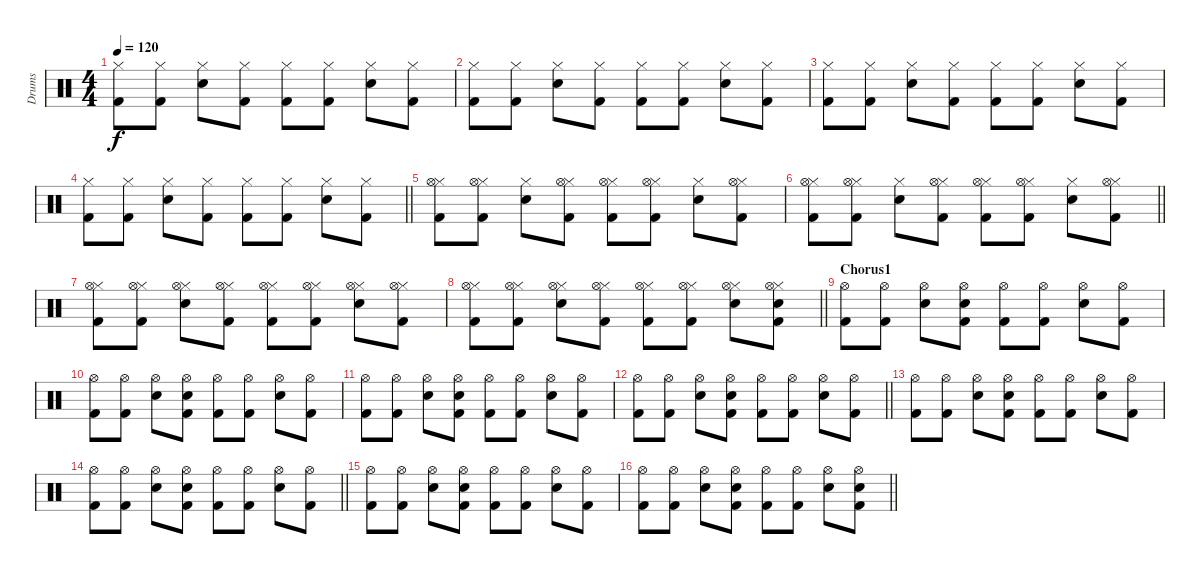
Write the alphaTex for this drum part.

\track ("Drums" "Drums") {instrument percussion}
\staff {score}
\articulation defaults
\ts (4 4)
\tempo 120
\clef neutral
\ks c
("Hi-Hat (closed)" "Kick (hit) 2").8{dy f} ("Hi-Hat (closed)" "Kick (hit) 2").8 ("Hi-Hat (closed)" "Electric Snare (hit)").8 ("Hi-Hat (closed)" "Kick (hit) 2").8 ("Hi-Hat (closed)" "Kick (hit) 2").8 ("Hi-Hat (closed)" "Kick (hit) 2").8 ("Hi-Hat (closed)" "Electric Snare (hit)").8 ("Hi-Hat (closed)" "Kick (hit) 2").8 |
("Hi-Hat (closed)" "Kick (hit) 2").8 ("Hi-Hat (closed)" "Kick (hit) 2").8 ("Hi-Hat (closed)" "Electric Snare (hit)").8 ("Hi-Hat (closed)" "Kick (hit) 2").8 ("Hi-Hat (closed)" "Kick (hit) 2").8 ("Hi-Hat (closed)" "Kick (hit) 2").8 ("Hi-Hat (closed)" "Electric Snare (hit)").8 ("Hi-Hat (closed)" "Kick (hit) 2").8 |
("Hi-Hat (closed)" "Kick (hit) 2").8 ("Hi-Hat (closed)" "Kick (hit) 2").8 ("Hi-Hat (closed)" "Electric Snare (hit)").8 ("Hi-Hat (closed)" "Kick (hit) 2").8 ("Hi-Hat (closed)" "Kick (hit) 2").8 ("Hi-Hat (closed)" "Kick (hit) 2").8 ("Hi-Hat (closed)" "Electric Snare (hit)").8 ("Hi-Hat (closed)" "Kick (hit) 2").8 |
\barLineRight lightlight
("Hi-Hat (closed)" "Kick (hit) 2").8 ("Hi-Hat (closed)" "Kick (hit) 2").8 ("Hi-Hat (closed)" "Electric Snare (hit)").8 ("Hi-Hat (closed)" "Kick (hit) 2").8 ("Hi-Hat (closed)" "Kick (hit) 2").8 ("Hi-Hat (closed)" "Kick (hit) 2").8 ("Hi-Hat (closed)" "Electric Snare (hit)").8 ("Hi-Hat (closed)" "Kick (hit) 2").8 |
("Hi-Hat (closed)" "Hi-Hat (open)" "Kick (hit) 2").8 ("Hi-Hat (closed)" "Hi-Hat (open)" "Kick (hit) 2").8 ("Hi-Hat (closed)" "Electric Snare (hit)").8 ("Hi-Hat (closed)" "Hi-Hat (open)" "Kick (hit) 2").8 ("Hi-Hat (closed)" "Hi-Hat (open)" "Kick (hit) 2").8 ("Hi-Hat (closed)" "Hi-Hat (open)" "Kick (hit) 2").8 ("Hi-Hat (closed)" "Electric Snare (hit)").8 ("Hi-Hat (closed)" "Hi-Hat (open)" "Kick (hit) 2").8 |
\barLineRight lightlight
("Hi-Hat (closed)" "Hi-Hat (open)" "Kick (hit) 2").8 ("Hi-Hat (closed)" "Hi-Hat (open)" "Kick (hit) 2").8 ("Hi-Hat (closed)" "Electric Snare (hit)").8 ("Hi-Hat (closed)" "Hi-Hat (open)" "Kick (hit) 2").8 ("Hi-Hat (closed)" "Hi-Hat (open)" "Kick (hit) 2").8 ("Hi-Hat (closed)" "Hi-Hat (open)" "Kick (hit) 2").8 ("Hi-Hat (closed)" "Electric Snare (hit)").8 ("Hi-Hat (closed)" "Hi-Hat (open)" "Kick (hit) 2").8 |
("Hi-Hat (closed)" "Hi-Hat (open)" "Kick (hit) 2").8 ("Hi-Hat (closed)" "Hi-Hat (open)" "Kick (hit) 2").8 ("Hi-Hat (closed)" "Hi-Hat (open)" "Electric Snare (hit)").8 ("Hi-Hat (closed)" "Hi-Hat (open)" "Kick (hit) 2").8 ("Hi-Hat (closed)" "Hi-Hat (open)" "Kick (hit) 2").8 ("Hi-Hat (closed)" "Hi-Hat (open)" "Kick (hit) 2").8 ("Hi-Hat (closed)" "Hi-Hat (open)" "Electric Snare (hit)").8 ("Hi-Hat (closed)" "Hi-Hat (open)" "Kick (hit) 2").8 |
\barLineRight lightlight
("Hi-Hat (closed)" "Hi-Hat (open)" "Kick (hit) 2").8 ("Hi-Hat (closed)" "Hi-Hat (open)" "Kick (hit) 2").8 ("Hi-Hat (closed)" "Hi-Hat (open)" "Electric Snare (hit)").8 ("Hi-Hat (closed)" "Hi-Hat (open)" "Kick (hit) 2").8 ("Hi-Hat (closed)" "Hi-Hat (open)" "Kick (hit) 2").8 ("Hi-Hat (closed)" "Hi-Hat (open)" "Kick (hit) 2").8 ("Hi-Hat (closed)" "Hi-Hat (open)" "Electric Snare (hit)").8 ("Hi-Hat (closed)" "Hi-Hat (open)" "Electric Snare (hit)" "Kick (hit) 2").8 |
\section ("" "Chorus1")
("Hi-Hat (open)" "Kick (hit) 2").8 ("Hi-Hat (open)" "Kick (hit) 2").8 ("Hi-Hat (open)" "Electric Snare (hit)").8 ("Hi-Hat (open)" "Electric Snare (hit)" "Kick (hit) 2").8 ("Hi-Hat (open)" "Kick (hit) 2").8 ("Hi-Hat (open)" "Kick (hit) 2").8 ("Hi-Hat (open)" "Electric Snare (hit)").8 ("Hi-Hat (open)" "Kick (hit) 2").8 |
("Hi-Hat (open)" "Kick (hit) 2").8 ("Hi-Hat (open)" "Kick (hit) 2").8 ("Hi-Hat (open)" "Electric Snare (hit)").8 ("Hi-Hat (open)" "Electric Snare (hit)" "Kick (hit) 2").8 ("Hi-Hat (open)" "Kick (hit) 2").8 ("Hi-Hat (open)" "Kick (hit) 2").8 ("Hi-Hat (open)" "Electric Snare (hit)").8 ("Hi-Hat (open)" "Kick (hit) 2").8 |
("Hi-Hat (open)" "Kick (hit) 2").8 ("Hi-Hat (open)" "Kick (hit) 2").8 ("Hi-Hat (open)" "Electric Snare (hit)").8 ("Hi-Hat (open)" "Electric Snare (hit)" "Kick (hit) 2").8 ("Hi-Hat (open)" "Kick (hit) 2").8 ("Hi-Hat (open)" "Kick (hit) 2").8 ("Hi-Hat (open)" "Electric Snare (hit)").8 ("Hi-Hat (open)" "Kick (hit) 2").8 |
\barLineRight lightlight
("Hi-Hat (open)" "Kick (hit) 2").8 ("Hi-Hat (open)" "Kick (hit) 2").8 ("Hi-Hat (open)" "Electric Snare (hit)").8 ("Hi-Hat (open)" "Electric Snare (hit)" "Kick (hit) 2").8 ("Hi-Hat (open)" "Kick (hit) 2").8 ("Hi-Hat (open)" "Kick (hit) 2").8 ("Hi-Hat (open)" "Electric Snare (hit)").8 ("Hi-Hat (open)" "Kick (hit) 2").8 |
("Hi-Hat (open)" "Kick (hit) 2").8 ("Hi-Hat (open)" "Kick (hit) 2").8 ("Hi-Hat (open)" "Electric Snare (hit)").8 ("Hi-Hat (open)" "Electric Snare (hit)" "Kick (hit) 2").8 ("Hi-Hat (open)" "Kick (hit) 2").8 ("Hi-Hat (open)" "Kick (hit) 2").8 ("Hi-Hat (open)" "Electric Snare (hit)").8 ("Hi-Hat (open)" "Kick (hit) 2").8 |
\barLineRight lightlight
("Hi-Hat (open)" "Kick (hit) 2").8 ("Hi-Hat (open)" "Kick (hit) 2").8 ("Hi-Hat (open)" "Electric Snare (hit)").8 ("Hi-Hat (open)" "Electric Snare (hit)" "Kick (hit) 2").8 ("Hi-Hat (open)" "Kick (hit) 2").8 ("Hi-Hat (open)" "Kick (hit) 2").8 ("Hi-Hat (open)" "Electric Snare (hit)").8 ("Hi-Hat (open)" "Kick (hit) 2").8 |
("Hi-Hat (open)" "Kick (hit) 2").8 ("Hi-Hat (open)" "Kick (hit) 2").8 ("Hi-Hat (open)" "Electric Snare (hit)").8 ("Hi-Hat (open)" "Electric Snare (hit)" "Kick (hit) 2").8 ("Hi-Hat (open)" "Kick (hit) 2").8 ("Hi-Hat (open)" "Kick (hit) 2").8 ("Hi-Hat (open)" "Electric Snare (hit)").8 ("Hi-Hat (open)" "Kick (hit) 2").8 |
\barLineRight lightlight
("Hi-Hat (open)" "Kick (hit) 2").8 ("Hi-Hat (open)" "Kick (hit) 2").8 ("Hi-Hat (open)" "Electric Snare (hit)").8 ("Hi-Hat (open)" "Electric Snare (hit)" "Kick (hit) 2").8 ("Hi-Hat (open)" "Kick (hit) 2").8 ("Hi-Hat (open)" "Kick (hit) 2").8 ("Hi-Hat (open)" "Electric Snare (hit)").8 ("Hi-Hat (open)" "Electric Snare (hit)" "Kick (hit) 2").8
